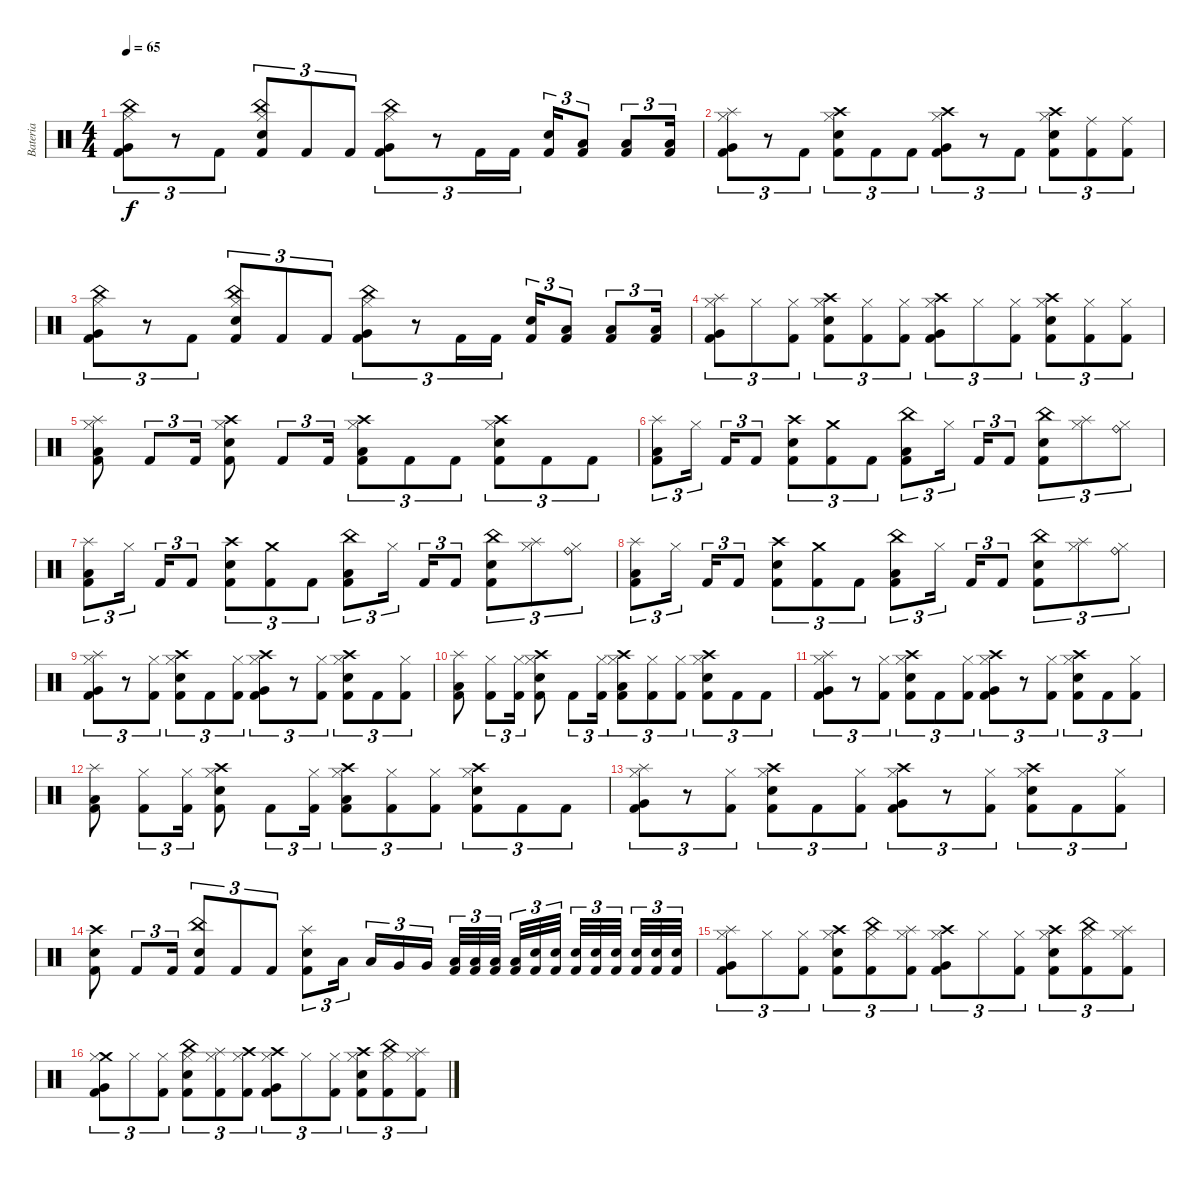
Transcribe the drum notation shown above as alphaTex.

\track ("Bateria" "Bateria") {instrument percussion}
\staff {score}
\articulation defaults
\ts (4 4)
\tempo 65
\clef neutral
\ks c
("Kick (hit) 2" "China (hit)" "Very Low Tom (hit)" "Hi-Hat (closed)").8{tu (3 2) dy f} r.8{tu (3 2)} "Kick (hit) 2".8{tu (3 2)} ("Snare (hit) 2" "Kick (hit) 2" "China (hit)" "Hi-Hat (closed)").8{tu (3 2)} "Kick (hit) 2".8{tu (3 2)} "Kick (hit) 2".8{tu (3 2)} ("Kick (hit) 2" "China (hit)" "Very Low Tom (hit)" "Hi-Hat (closed)").8{tu (3 2)} r.8{tu (3 2)} "Kick (hit) 2".16{tu (3 2)} "Kick (hit) 2".16{tu (3 2)} ("Snare (hit) 2" "Kick (hit) 2").16{tu (3 2)} ("Low Floor Tom (hit)" "Kick (hit) 2").8{tu (3 2)} ("Kick (hit) 2" "Low Floor Tom (hit)").8{tu (3 2)} ("Low Floor Tom (hit)" "Kick (hit) 2").16{tu (3 2)} |
("Kick (hit) 2" "Splash (hit)" "Very Low Tom (hit)" "Hi-Hat (closed)").8{tu (3 2)} r.8{tu (3 2)} "Kick (hit) 2".8{tu (3 2)} ("Snare (hit) 2" "Kick (hit) 2" "Crash high (hit)" "Hi-Hat (closed)").8{tu (3 2)} "Kick (hit) 2".8{tu (3 2)} "Kick (hit) 2".8{tu (3 2)} ("Kick (hit) 2" "Crash high (hit)" "Very Low Tom (hit)" "Hi-Hat (closed)").8{tu (3 2)} r.8{tu (3 2)} "Kick (hit) 2".8{tu (3 2)} ("Snare (hit) 2" "Kick (hit) 2" "Crash high (hit)" "Hi-Hat (closed)").8{tu (3 2)} ("Ride (middle)" "Kick (hit) 2").8{tu (3 2)} ("Ride (middle)" "Kick (hit) 2").8{tu (3 2)} |
("Kick (hit) 2" "China (hit)" "Very Low Tom (hit)" "Hi-Hat (closed)").8{tu (3 2)} r.8{tu (3 2)} "Kick (hit) 2".8{tu (3 2)} ("Snare (hit) 2" "Kick (hit) 2" "China (hit)" "Hi-Hat (closed)").8{tu (3 2)} "Kick (hit) 2".8{tu (3 2)} "Kick (hit) 2".8{tu (3 2)} ("Kick (hit) 2" "China (hit)" "Very Low Tom (hit)" "Hi-Hat (closed)").8{tu (3 2)} r.8{tu (3 2)} "Kick (hit) 2".16{tu (3 2)} "Kick (hit) 2".16{tu (3 2)} ("Snare (hit) 2" "Kick (hit) 2").16{tu (3 2)} ("Low Floor Tom (hit)" "Kick (hit) 2").8{tu (3 2)} ("Kick (hit) 2" "Low Floor Tom (hit)").8{tu (3 2)} ("Low Floor Tom (hit)" "Kick (hit) 2").16{tu (3 2)} |
("Kick (hit) 2" "Splash (hit)" "Very Low Tom (hit)" "Hi-Hat (closed)").8{tu (3 2)} "Hi-Hat (closed)".8{tu (3 2)} ("Kick (hit) 2" "Hi-Hat (closed)").8{tu (3 2)} ("Snare (hit) 2" "Kick (hit) 2" "Crash high (hit)" "Hi-Hat (closed)").8{tu (3 2)} ("Kick (hit) 2" "Hi-Hat (closed)").8{tu (3 2)} ("Kick (hit) 2" "Hi-Hat (closed)").8{tu (3 2)} ("Kick (hit) 2" "Crash high (hit)" "Very Low Tom (hit)" "Hi-Hat (closed)").8{tu (3 2)} "Hi-Hat (closed)".8{tu (3 2)} ("Kick (hit) 2" "Hi-Hat (closed)").8{tu (3 2)} ("Snare (hit) 2" "Kick (hit) 2" "Crash high (hit)" "Hi-Hat (closed)").8{tu (3 2)} ("Kick (hit) 2" "Hi-Hat (closed)").8{tu (3 2)} ("Kick (hit) 2" "Hi-Hat (closed)").8{tu (3 2)} |
("Kick (hit) 2" "Low Floor Tom (hit)" "Splash (hit)" "Hi-Hat (closed)").8 "Kick (hit) 2".8{tu (3 2)} "Kick (hit) 2".16{tu (3 2)} ("Kick (hit) 2" "Snare (hit) 2" "Crash high (hit)" "Hi-Hat (closed)").8 "Kick (hit) 2".8{tu (3 2)} "Kick (hit) 2".16{tu (3 2)} ("Kick (hit) 2" "Low Floor Tom (hit)" "Crash high (hit)" "Hi-Hat (closed)").8{tu (3 2)} "Kick (hit) 2".8{tu (3 2)} "Kick (hit) 2".8{tu (3 2)} ("Kick (hit) 2" "Snare (hit) 2" "Crash high (hit)" "Hi-Hat (closed)").8{tu (3 2)} "Kick (hit) 2".8{tu (3 2)} "Kick (hit) 2".8{tu (3 2)} |
("Kick (hit) 2" "Splash (hit)" "Low Floor Tom (hit)").8{tu (3 2)} "Hi-Hat (closed)".16{tu (3 2) beam splitsecondary} "Kick (hit) 2".16{tu (3 2)} "Kick (hit) 2".8{tu (3 2)} ("Snare (hit) 2" "Kick (hit) 2" "Crash high (hit)").8{tu (3 2)} ("Crash medium (hit)" "Kick (hit) 2").8{tu (3 2)} "Kick (hit) 2".8{tu (3 2)} ("Kick (hit) 2" "China (hit)" "Low Floor Tom (hit)").8{tu (3 2)} "Hi-Hat (closed)".16{tu (3 2) beam splitsecondary} "Kick (hit) 2".16{tu (3 2)} "Kick (hit) 2".8{tu (3 2)} ("Snare (hit) 2" "Kick (hit) 2" "China (hit)").8{tu (3 2)} ("Hi-Hat (closed)" "Splash (hit)").8{tu (3 2)} ("Hi-Hat (closed)" "Ride (bell)").8{tu (3 2)} |
("Kick (hit) 2" "Splash (hit)" "Low Floor Tom (hit)").8{tu (3 2)} "Hi-Hat (closed)".16{tu (3 2) beam splitsecondary} "Kick (hit) 2".16{tu (3 2)} "Kick (hit) 2".8{tu (3 2)} ("Snare (hit) 2" "Kick (hit) 2" "Crash high (hit)").8{tu (3 2)} ("Crash medium (hit)" "Kick (hit) 2").8{tu (3 2)} "Kick (hit) 2".8{tu (3 2)} ("Kick (hit) 2" "China (hit)" "Low Floor Tom (hit)").8{tu (3 2)} "Hi-Hat (closed)".16{tu (3 2) beam splitsecondary} "Kick (hit) 2".16{tu (3 2)} "Kick (hit) 2".8{tu (3 2)} ("Snare (hit) 2" "Kick (hit) 2" "China (hit)").8{tu (3 2)} ("Hi-Hat (closed)" "Splash (hit)").8{tu (3 2)} ("Hi-Hat (closed)" "Ride (bell)").8{tu (3 2)} |
("Kick (hit) 2" "Splash (hit)" "Low Floor Tom (hit)").8{tu (3 2)} "Hi-Hat (closed)".16{tu (3 2) beam splitsecondary} "Kick (hit) 2".16{tu (3 2)} "Kick (hit) 2".8{tu (3 2)} ("Snare (hit) 2" "Kick (hit) 2" "Crash high (hit)").8{tu (3 2)} ("Crash medium (hit)" "Kick (hit) 2").8{tu (3 2)} "Kick (hit) 2".8{tu (3 2)} ("Kick (hit) 2" "China (hit)" "Low Floor Tom (hit)").8{tu (3 2)} "Hi-Hat (closed)".16{tu (3 2) beam splitsecondary} "Kick (hit) 2".16{tu (3 2)} "Kick (hit) 2".8{tu (3 2)} ("Snare (hit) 2" "Kick (hit) 2" "China (hit)").8{tu (3 2)} ("Hi-Hat (closed)" "Splash (hit)").8{tu (3 2)} ("Hi-Hat (closed)" "Ride (bell)").8{tu (3 2)} |
("Kick (hit) 2" "Splash (hit)" "Very Low Tom (hit)" "Hi-Hat (closed)").8{tu (3 2)} r.8{tu (3 2)} ("Kick (hit) 2" "Hi-Hat (closed)").8{tu (3 2)} ("Snare (hit) 2" "Kick (hit) 2" "Crash high (hit)" "Hi-Hat (closed)").8{tu (3 2)} "Kick (hit) 2".8{tu (3 2)} ("Kick (hit) 2" "Hi-Hat (closed)").8{tu (3 2)} ("Kick (hit) 2" "Crash high (hit)" "Very Low Tom (hit)" "Hi-Hat (closed)").8{tu (3 2)} r.8{tu (3 2)} ("Kick (hit) 2" "Hi-Hat (closed)").8{tu (3 2)} ("Snare (hit) 2" "Kick (hit) 2" "Crash high (hit)" "Hi-Hat (closed)").8{tu (3 2)} "Kick (hit) 2".8{tu (3 2)} ("Kick (hit) 2" "Hi-Hat (closed)").8{tu (3 2)} |
("Kick (hit) 2" "Low Floor Tom (hit)" "Splash (hit)").8 ("Kick (hit) 2" "Hi-Hat (closed)").8{tu (3 2)} ("Kick (hit) 2" "Hi-Hat (closed)").16{tu (3 2)} ("Kick (hit) 2" "Snare (hit) 2" "Crash high (hit)" "Hi-Hat (closed)").8 "Kick (hit) 2".8{tu (3 2)} ("Kick (hit) 2" "Hi-Hat (closed)").16{tu (3 2)} ("Kick (hit) 2" "Low Floor Tom (hit)" "Crash high (hit)" "Hi-Hat (closed)").8{tu (3 2)} ("Kick (hit) 2" "Hi-Hat (closed)").8{tu (3 2)} ("Kick (hit) 2" "Hi-Hat (closed)").8{tu (3 2)} ("Kick (hit) 2" "Snare (hit) 2" "Crash high (hit)" "Hi-Hat (closed)").8{tu (3 2)} "Kick (hit) 2".8{tu (3 2)} "Kick (hit) 2".8{tu (3 2)} |
("Kick (hit) 2" "Splash (hit)" "Very Low Tom (hit)" "Hi-Hat (closed)").8{tu (3 2)} r.8{tu (3 2)} ("Kick (hit) 2" "Hi-Hat (closed)").8{tu (3 2)} ("Snare (hit) 2" "Kick (hit) 2" "Crash high (hit)" "Hi-Hat (closed)").8{tu (3 2)} "Kick (hit) 2".8{tu (3 2)} ("Kick (hit) 2" "Hi-Hat (closed)").8{tu (3 2)} ("Kick (hit) 2" "Crash high (hit)" "Very Low Tom (hit)" "Hi-Hat (closed)").8{tu (3 2)} r.8{tu (3 2)} ("Kick (hit) 2" "Hi-Hat (closed)").8{tu (3 2)} ("Snare (hit) 2" "Kick (hit) 2" "Crash high (hit)" "Hi-Hat (closed)").8{tu (3 2)} "Kick (hit) 2".8{tu (3 2)} ("Kick (hit) 2" "Hi-Hat (closed)").8{tu (3 2)} |
("Kick (hit) 2" "Low Floor Tom (hit)" "Splash (hit)").8 ("Kick (hit) 2" "Hi-Hat (closed)").8{tu (3 2)} ("Kick (hit) 2" "Hi-Hat (closed)").16{tu (3 2)} ("Kick (hit) 2" "Snare (hit) 2" "Crash high (hit)" "Hi-Hat (closed)").8 "Kick (hit) 2".8{tu (3 2)} ("Kick (hit) 2" "Hi-Hat (closed)").16{tu (3 2)} ("Kick (hit) 2" "Low Floor Tom (hit)" "Crash high (hit)" "Hi-Hat (closed)").8{tu (3 2)} ("Kick (hit) 2" "Hi-Hat (closed)").8{tu (3 2)} ("Kick (hit) 2" "Hi-Hat (closed)").8{tu (3 2)} ("Kick (hit) 2" "Snare (hit) 2" "Crash high (hit)" "Hi-Hat (closed)").8{tu (3 2)} "Kick (hit) 2".8{tu (3 2)} "Kick (hit) 2".8{tu (3 2)} |
("Kick (hit) 2" "Splash (hit)" "Very Low Tom (hit)" "Hi-Hat (closed)").8{tu (3 2)} r.8{tu (3 2)} ("Kick (hit) 2" "Hi-Hat (closed)").8{tu (3 2)} ("Snare (hit) 2" "Kick (hit) 2" "Crash high (hit)" "Hi-Hat (closed)").8{tu (3 2)} "Kick (hit) 2".8{tu (3 2)} ("Kick (hit) 2" "Hi-Hat (closed)").8{tu (3 2)} ("Kick (hit) 2" "Crash high (hit)" "Very Low Tom (hit)" "Hi-Hat (closed)").8{tu (3 2)} r.8{tu (3 2)} ("Kick (hit) 2" "Hi-Hat (closed)").8{tu (3 2)} ("Snare (hit) 2" "Kick (hit) 2" "Crash high (hit)" "Hi-Hat (closed)").8{tu (3 2)} "Kick (hit) 2".8{tu (3 2)} ("Kick (hit) 2" "Hi-Hat (closed)").8{tu (3 2)} |
("Kick (hit) 2" "Snare (hit) 2" "Crash high (hit)").8 "Kick (hit) 2".8{tu (3 2)} "Kick (hit) 2".16{tu (3 2)} ("Snare (hit) 2" "Kick (hit) 2" "China (hit)").8{tu (3 2)} "Kick (hit) 2".8{tu (3 2)} "Kick (hit) 2".8{tu (3 2)} ("Kick (hit) 2" "Splash (hit)" "Snare (hit) 2").8{tu (3 2)} "Low Tom (hit)".16{tu (3 2) beam splitsecondary} "Low Tom (hit)".16{tu (3 2)} "Very Low Tom (hit)".16{tu (3 2)} "Very Low Tom (hit)".16{tu (3 2)} ("Low Floor Tom (hit)" "Kick (hit) 2").32{tu (3 2)} ("Low Floor Tom (hit)" "Kick (hit) 2").32{tu (3 2)} ("Low Floor Tom (hit)" "Kick (hit) 2").32{tu (3 2) beam splitsecondary} ("Low Floor Tom (hit)" "Kick (hit) 2").32{tu (3 2)} ("Snare (hit) 2" "Kick (hit) 2").32{tu (3 2)} ("Snare (hit) 2" "Kick (hit) 2").32{tu (3 2) beam splitsecondary} ("Snare (hit) 2" "Kick (hit) 2").32{tu (3 2)} ("Snare (hit) 2" "Kick (hit) 2").32{tu (3 2)} ("Snare (hit) 2" "Kick (hit) 2").32{tu (3 2) beam splitsecondary} ("Snare (hit) 2" "Kick (hit) 2").32{tu (3 2)} ("Snare (hit) 2" "Kick (hit) 2").32{tu (3 2)} ("Snare (hit) 2" "Kick (hit) 2").32{tu (3 2)} |
("Kick (hit) 2" "Splash (hit)" "Very Low Tom (hit)" "Hi-Hat (closed)").8{tu (3 2)} "Hi-Hat (closed)".8{tu (3 2)} ("Kick (hit) 2" "Hi-Hat (closed)").8{tu (3 2)} ("Snare (hit) 2" "Kick (hit) 2" "Crash high (hit)" "Hi-Hat (closed)").8{tu (3 2)} ("China (hit)" "Kick (hit) 2" "Hi-Hat (closed)").8{tu (3 2)} ("Splash (hit)" "Kick (hit) 2" "Hi-Hat (closed)").8{tu (3 2)} ("Kick (hit) 2" "Crash high (hit)" "Very Low Tom (hit)" "Hi-Hat (closed)").8{tu (3 2)} "Hi-Hat (closed)".8{tu (3 2)} ("Kick (hit) 2" "Hi-Hat (closed)").8{tu (3 2)} ("Snare (hit) 2" "Kick (hit) 2" "Crash high (hit)" "Hi-Hat (closed)").8{tu (3 2)} ("China (hit)" "Kick (hit) 2" "Hi-Hat (closed)").8{tu (3 2)} ("Splash (hit)" "Kick (hit) 2" "Hi-Hat (closed)").8{tu (3 2)} |
("Kick (hit) 2" "Crash medium (hit)" "Very Low Tom (hit)" "Hi-Hat (closed)").8{tu (3 2)} "Hi-Hat (closed)".8{tu (3 2)} ("Kick (hit) 2" "Hi-Hat (closed)").8{tu (3 2)} ("Snare (hit) 2" "Kick (hit) 2" "China (hit)" "Hi-Hat (closed)").8{tu (3 2)} ("Splash (hit)" "Kick (hit) 2" "Hi-Hat (closed)").8{tu (3 2)} ("Crash high (hit)" "Kick (hit) 2" "Hi-Hat (closed)").8{tu (3 2)} ("Kick (hit) 2" "Crash high (hit)" "Very Low Tom (hit)" "Hi-Hat (closed)").8{tu (3 2)} "Hi-Hat (closed)".8{tu (3 2)} ("Kick (hit) 2" "Hi-Hat (closed)").8{tu (3 2)} ("Snare (hit) 2" "Kick (hit) 2" "Crash high (hit)" "Hi-Hat (closed)").8{tu (3 2)} ("China (hit)" "Kick (hit) 2" "Hi-Hat (closed)").8{tu (3 2)} ("Splash (hit)" "Kick (hit) 2" "Hi-Hat (closed)").8{tu (3 2)}
